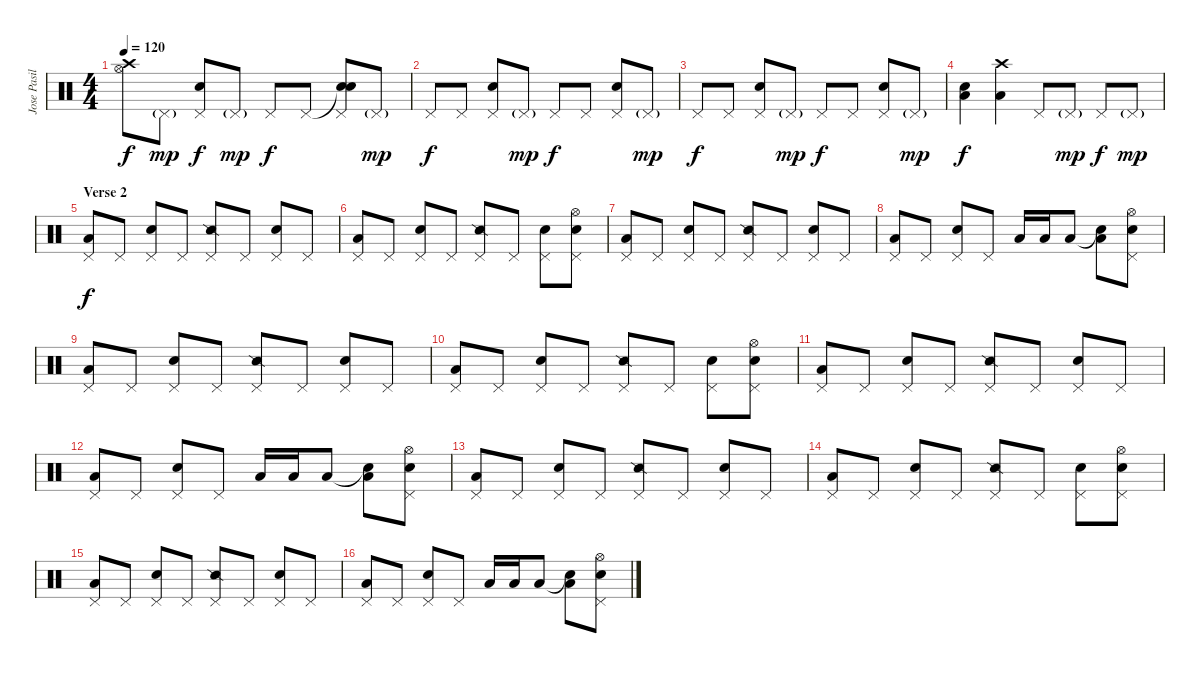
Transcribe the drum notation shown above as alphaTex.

\track ("Jose Pasillas II" "Jose Pasil") {instrument percussion}
\staff {score}
\articulation defaults
\ts (4 4)
\tempo 120
\clef neutral
\ks c
("Crash high (hit)" "Hi-Hat (open)").8{dy f} "Pedal Hi-Hat (hit)"{g}.8{dy mp} ("Pedal Hi-Hat (hit)" "Electric Snare (hit)").8{dy f} "Pedal Hi-Hat (hit)"{g}.8{dy mp} "Pedal Hi-Hat (hit)".8{dy f} "Pedal Hi-Hat (hit)".8 ("Snare (hit)"{t} "Pedal Hi-Hat (hit)" "Electric Snare (hit)").8 "Pedal Hi-Hat (hit)"{g}.8{dy mp} |
"Pedal Hi-Hat (hit)".8{dy f} "Pedal Hi-Hat (hit)".8 ("Pedal Hi-Hat (hit)" "Electric Snare (hit)").8 "Pedal Hi-Hat (hit)"{g}.8{dy mp} "Pedal Hi-Hat (hit)".8{dy f} "Pedal Hi-Hat (hit)".8 ("Pedal Hi-Hat (hit)" "Electric Snare (hit)").8 "Pedal Hi-Hat (hit)"{g}.8{dy mp} |
"Pedal Hi-Hat (hit)".8{dy f} "Pedal Hi-Hat (hit)".8 ("Pedal Hi-Hat (hit)" "Electric Snare (hit)").8 "Pedal Hi-Hat (hit)"{g}.8{dy mp} "Pedal Hi-Hat (hit)".8{dy f} "Pedal Hi-Hat (hit)".8 ("Pedal Hi-Hat (hit)" "Electric Snare (hit)").8 "Pedal Hi-Hat (hit)"{g}.8{dy mp} |
("Electric Snare (hit)" "Low Tom (hit)").4{dy f} ("Crash high (hit)" "Low Tom (hit)").4 "Pedal Hi-Hat (hit)".8 "Pedal Hi-Hat (hit)"{g}.8{dy mp} "Pedal Hi-Hat (hit)".8{dy f} "Pedal Hi-Hat (hit)"{g}.8{dy mp} |
\section ("" "Verse 2")
("Pedal Hi-Hat (hit)" "Low Floor Tom (hit)").8{dy f} "Pedal Hi-Hat (hit)".8 ("Pedal Hi-Hat (hit)" "Electric Snare (hit)").8 "Pedal Hi-Hat (hit)".8 ("Pedal Hi-Hat (hit)" "Snare (side stick) 2").8 "Pedal Hi-Hat (hit)".8 ("Pedal Hi-Hat (hit)" "Electric Snare (hit)").8 "Pedal Hi-Hat (hit)".8 |
("Pedal Hi-Hat (hit)" "Low Floor Tom (hit)").8 "Pedal Hi-Hat (hit)".8 ("Pedal Hi-Hat (hit)" "Electric Snare (hit)").8 "Pedal Hi-Hat (hit)".8 ("Pedal Hi-Hat (hit)" "Snare (side stick) 2").8 "Pedal Hi-Hat (hit)".8 ("Pedal Hi-Hat (hit)" "Electric Snare (hit)").8 ("Pedal Hi-Hat (hit)" "Hi-Hat (open)" "Electric Snare (hit)").8 |
("Pedal Hi-Hat (hit)" "Low Floor Tom (hit)").8 "Pedal Hi-Hat (hit)".8 ("Pedal Hi-Hat (hit)" "Electric Snare (hit)").8 "Pedal Hi-Hat (hit)".8 ("Pedal Hi-Hat (hit)" "Snare (side stick) 2").8 "Pedal Hi-Hat (hit)".8 ("Pedal Hi-Hat (hit)" "Electric Snare (hit)").8 "Pedal Hi-Hat (hit)".8 |
("Pedal Hi-Hat (hit)" "Low Floor Tom (hit)").8 "Pedal Hi-Hat (hit)".8 ("Pedal Hi-Hat (hit)" "Electric Snare (hit)").8 "Pedal Hi-Hat (hit)".8 "Low Tom (hit)".16 "Low Tom (hit)".16 "Low Floor Tom (hit)".8 ("Snare (hit)"{t} "Low Tom (hit)").8 ("Hi-Hat (open)" "Pedal Hi-Hat (hit)" "Electric Snare (hit)").8 |
("Pedal Hi-Hat (hit)" "Low Floor Tom (hit)").8 "Pedal Hi-Hat (hit)".8 ("Pedal Hi-Hat (hit)" "Electric Snare (hit)").8 "Pedal Hi-Hat (hit)".8 ("Pedal Hi-Hat (hit)" "Snare (side stick) 2").8 "Pedal Hi-Hat (hit)".8 ("Pedal Hi-Hat (hit)" "Electric Snare (hit)").8 "Pedal Hi-Hat (hit)".8 |
("Pedal Hi-Hat (hit)" "Low Floor Tom (hit)").8 "Pedal Hi-Hat (hit)".8 ("Pedal Hi-Hat (hit)" "Electric Snare (hit)").8 "Pedal Hi-Hat (hit)".8 ("Pedal Hi-Hat (hit)" "Snare (side stick) 2").8 "Pedal Hi-Hat (hit)".8 ("Pedal Hi-Hat (hit)" "Electric Snare (hit)").8 ("Pedal Hi-Hat (hit)" "Hi-Hat (open)" "Electric Snare (hit)").8 |
("Pedal Hi-Hat (hit)" "Low Floor Tom (hit)").8 "Pedal Hi-Hat (hit)".8 ("Pedal Hi-Hat (hit)" "Electric Snare (hit)").8 "Pedal Hi-Hat (hit)".8 ("Pedal Hi-Hat (hit)" "Snare (side stick) 2").8 "Pedal Hi-Hat (hit)".8 ("Pedal Hi-Hat (hit)" "Electric Snare (hit)").8 "Pedal Hi-Hat (hit)".8 |
("Pedal Hi-Hat (hit)" "Low Floor Tom (hit)").8 "Pedal Hi-Hat (hit)".8 ("Pedal Hi-Hat (hit)" "Electric Snare (hit)").8 "Pedal Hi-Hat (hit)".8 "Low Tom (hit)".16 "Low Tom (hit)".16 "Low Floor Tom (hit)".8 ("Snare (hit)"{t} "Low Tom (hit)").8 ("Hi-Hat (open)" "Pedal Hi-Hat (hit)" "Electric Snare (hit)").8 |
("Pedal Hi-Hat (hit)" "Low Floor Tom (hit)").8 "Pedal Hi-Hat (hit)".8 ("Pedal Hi-Hat (hit)" "Electric Snare (hit)").8 "Pedal Hi-Hat (hit)".8 ("Pedal Hi-Hat (hit)" "Snare (side stick) 2").8 "Pedal Hi-Hat (hit)".8 ("Pedal Hi-Hat (hit)" "Electric Snare (hit)").8 "Pedal Hi-Hat (hit)".8 |
("Pedal Hi-Hat (hit)" "Low Floor Tom (hit)").8 "Pedal Hi-Hat (hit)".8 ("Pedal Hi-Hat (hit)" "Electric Snare (hit)").8 "Pedal Hi-Hat (hit)".8 ("Pedal Hi-Hat (hit)" "Snare (side stick) 2").8 "Pedal Hi-Hat (hit)".8 ("Pedal Hi-Hat (hit)" "Electric Snare (hit)").8 ("Pedal Hi-Hat (hit)" "Hi-Hat (open)" "Electric Snare (hit)").8 |
("Pedal Hi-Hat (hit)" "Low Floor Tom (hit)").8 "Pedal Hi-Hat (hit)".8 ("Pedal Hi-Hat (hit)" "Electric Snare (hit)").8 "Pedal Hi-Hat (hit)".8 ("Pedal Hi-Hat (hit)" "Snare (side stick) 2").8 "Pedal Hi-Hat (hit)".8 ("Pedal Hi-Hat (hit)" "Electric Snare (hit)").8 "Pedal Hi-Hat (hit)".8 |
("Pedal Hi-Hat (hit)" "Low Floor Tom (hit)").8 "Pedal Hi-Hat (hit)".8 ("Pedal Hi-Hat (hit)" "Electric Snare (hit)").8 "Pedal Hi-Hat (hit)".8 "Low Tom (hit)".16 "Low Tom (hit)".16 "Low Floor Tom (hit)".8 ("Snare (hit)"{t} "Low Tom (hit)").8 ("Hi-Hat (open)" "Pedal Hi-Hat (hit)" "Electric Snare (hit)").8
